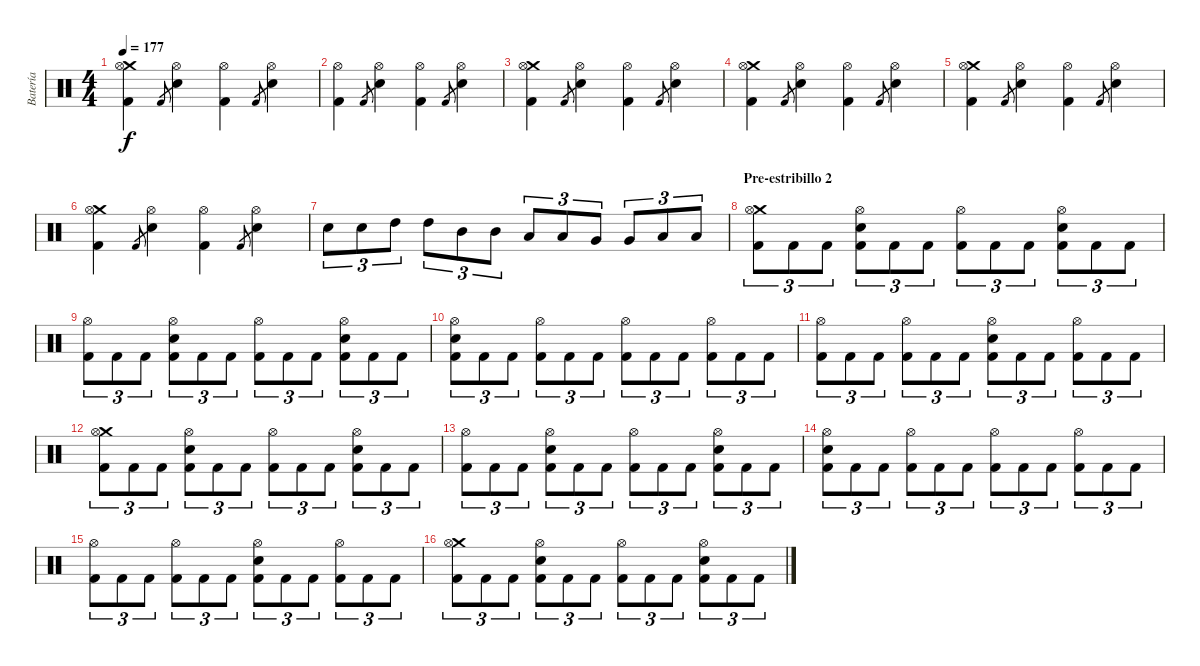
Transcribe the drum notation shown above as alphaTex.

\track ("Batería" "Batería") {instrument percussion}
\staff {score}
\articulation defaults
\ts (4 4)
\tempo 177
\clef neutral
\ks c
("Crash medium (hit)" "Hi-Hat (open)" "Kick (hit) 2").4{dy f} "Kick (hit) 2".8{gr} ("Hi-Hat (open)" "Snare (hit) 2").4 ("Hi-Hat (open)" "Kick (hit) 2").4 "Kick (hit) 2".8{gr} ("Hi-Hat (open)" "Snare (hit) 2").4 |
("Hi-Hat (open)" "Kick (hit) 2").4 "Kick (hit) 2".8{gr} ("Hi-Hat (open)" "Snare (hit) 2").4 ("Hi-Hat (open)" "Kick (hit) 2").4 "Kick (hit) 2".8{gr} ("Hi-Hat (open)" "Snare (hit) 2").4 |
("Crash medium (hit)" "Hi-Hat (open)" "Kick (hit) 2").4 "Kick (hit) 2".8{gr} ("Hi-Hat (open)" "Snare (hit) 2").4 ("Hi-Hat (open)" "Kick (hit) 2").4 "Kick (hit) 2".8{gr} ("Hi-Hat (open)" "Snare (hit) 2").4 |
("Crash medium (hit)" "Hi-Hat (open)" "Kick (hit) 2").4 "Kick (hit) 2".8{gr} ("Hi-Hat (open)" "Snare (hit) 2").4 ("Hi-Hat (open)" "Kick (hit) 2").4 "Kick (hit) 2".8{gr} ("Hi-Hat (open)" "Snare (hit) 2").4 |
("Crash medium (hit)" "Hi-Hat (open)" "Kick (hit) 2").4 "Kick (hit) 2".8{gr} ("Hi-Hat (open)" "Snare (hit) 2").4 ("Hi-Hat (open)" "Kick (hit) 2").4 "Kick (hit) 2".8{gr} ("Hi-Hat (open)" "Snare (hit) 2").4 |
("Crash medium (hit)" "Hi-Hat (open)" "Kick (hit) 2").4 "Kick (hit) 2".8{gr} ("Hi-Hat (open)" "Snare (hit) 2").4 ("Hi-Hat (open)" "Kick (hit) 2").4 "Kick (hit) 2".8{gr} ("Hi-Hat (open)" "Snare (hit) 2").4 |
"Snare (hit) 2".8{tu (3 2)} "Snare (hit) 2".8{tu (3 2)} "High Tom (hit)".8{tu (3 2)} "High Tom (hit)".8{tu (3 2)} "Mid Tom (hit)".8{tu (3 2)} "Mid Tom (hit)".8{tu (3 2)} "Low Tom (hit)".8{tu (3 2)} "Low Tom (hit)".8{tu (3 2)} "Very Low Tom (hit)".8{tu (3 2)} "Very Low Tom (hit)".8{tu (3 2)} "Low Floor Tom (hit)".8{tu (3 2)} "Low Floor Tom (hit)".8{tu (3 2)} |
\section ("" "Pre-estribillo 2")
("Crash medium (hit)" "Hi-Hat (open)" "Kick (hit) 2").8{tu (3 2)} "Kick (hit) 2".8{tu (3 2)} "Kick (hit) 2".8{tu (3 2)} ("Hi-Hat (open)" "Snare (hit) 2" "Kick (hit) 2").8{tu (3 2)} "Kick (hit) 2".8{tu (3 2)} "Kick (hit) 2".8{tu (3 2)} ("Hi-Hat (open)" "Kick (hit) 2").8{tu (3 2)} "Kick (hit) 2".8{tu (3 2)} "Kick (hit) 2".8{tu (3 2)} ("Hi-Hat (open)" "Snare (hit) 2" "Kick (hit) 2").8{tu (3 2)} "Kick (hit) 2".8{tu (3 2)} "Kick (hit) 2".8{tu (3 2)} |
("Hi-Hat (open)" "Kick (hit) 2").8{tu (3 2)} "Kick (hit) 2".8{tu (3 2)} "Kick (hit) 2".8{tu (3 2)} ("Hi-Hat (open)" "Snare (hit) 2" "Kick (hit) 2").8{tu (3 2)} "Kick (hit) 2".8{tu (3 2)} "Kick (hit) 2".8{tu (3 2)} ("Hi-Hat (open)" "Kick (hit) 2").8{tu (3 2)} "Kick (hit) 2".8{tu (3 2)} "Kick (hit) 2".8{tu (3 2)} ("Hi-Hat (open)" "Snare (hit) 2" "Kick (hit) 2").8{tu (3 2)} "Kick (hit) 2".8{tu (3 2)} "Kick (hit) 2".8{tu (3 2)} |
("Hi-Hat (open)" "Snare (hit) 2" "Kick (hit) 2").8{tu (3 2)} "Kick (hit) 2".8{tu (3 2)} "Kick (hit) 2".8{tu (3 2)} ("Hi-Hat (open)" "Kick (hit) 2").8{tu (3 2)} "Kick (hit) 2".8{tu (3 2)} "Kick (hit) 2".8{tu (3 2)} ("Hi-Hat (open)" "Kick (hit) 2").8{tu (3 2)} "Kick (hit) 2".8{tu (3 2)} "Kick (hit) 2".8{tu (3 2)} ("Hi-Hat (open)" "Kick (hit) 2").8{tu (3 2)} "Kick (hit) 2".8{tu (3 2)} "Kick (hit) 2".8{tu (3 2)} |
("Hi-Hat (open)" "Kick (hit) 2").8{tu (3 2)} "Kick (hit) 2".8{tu (3 2)} "Kick (hit) 2".8{tu (3 2)} ("Hi-Hat (open)" "Kick (hit) 2").8{tu (3 2)} "Kick (hit) 2".8{tu (3 2)} "Kick (hit) 2".8{tu (3 2)} ("Hi-Hat (open)" "Snare (hit) 2" "Kick (hit) 2").8{tu (3 2)} "Kick (hit) 2".8{tu (3 2)} "Kick (hit) 2".8{tu (3 2)} ("Hi-Hat (open)" "Kick (hit) 2").8{tu (3 2)} "Kick (hit) 2".8{tu (3 2)} "Kick (hit) 2".8{tu (3 2)} |
("Crash medium (hit)" "Hi-Hat (open)" "Kick (hit) 2").8{tu (3 2)} "Kick (hit) 2".8{tu (3 2)} "Kick (hit) 2".8{tu (3 2)} ("Hi-Hat (open)" "Snare (hit) 2" "Kick (hit) 2").8{tu (3 2)} "Kick (hit) 2".8{tu (3 2)} "Kick (hit) 2".8{tu (3 2)} ("Hi-Hat (open)" "Kick (hit) 2").8{tu (3 2)} "Kick (hit) 2".8{tu (3 2)} "Kick (hit) 2".8{tu (3 2)} ("Hi-Hat (open)" "Snare (hit) 2" "Kick (hit) 2").8{tu (3 2)} "Kick (hit) 2".8{tu (3 2)} "Kick (hit) 2".8{tu (3 2)} |
("Hi-Hat (open)" "Kick (hit) 2").8{tu (3 2)} "Kick (hit) 2".8{tu (3 2)} "Kick (hit) 2".8{tu (3 2)} ("Hi-Hat (open)" "Snare (hit) 2" "Kick (hit) 2").8{tu (3 2)} "Kick (hit) 2".8{tu (3 2)} "Kick (hit) 2".8{tu (3 2)} ("Hi-Hat (open)" "Kick (hit) 2").8{tu (3 2)} "Kick (hit) 2".8{tu (3 2)} "Kick (hit) 2".8{tu (3 2)} ("Hi-Hat (open)" "Snare (hit) 2" "Kick (hit) 2").8{tu (3 2)} "Kick (hit) 2".8{tu (3 2)} "Kick (hit) 2".8{tu (3 2)} |
("Hi-Hat (open)" "Snare (hit) 2" "Kick (hit) 2").8{tu (3 2)} "Kick (hit) 2".8{tu (3 2)} "Kick (hit) 2".8{tu (3 2)} ("Hi-Hat (open)" "Kick (hit) 2").8{tu (3 2)} "Kick (hit) 2".8{tu (3 2)} "Kick (hit) 2".8{tu (3 2)} ("Hi-Hat (open)" "Kick (hit) 2").8{tu (3 2)} "Kick (hit) 2".8{tu (3 2)} "Kick (hit) 2".8{tu (3 2)} ("Hi-Hat (open)" "Kick (hit) 2").8{tu (3 2)} "Kick (hit) 2".8{tu (3 2)} "Kick (hit) 2".8{tu (3 2)} |
("Hi-Hat (open)" "Kick (hit) 2").8{tu (3 2)} "Kick (hit) 2".8{tu (3 2)} "Kick (hit) 2".8{tu (3 2)} ("Hi-Hat (open)" "Kick (hit) 2").8{tu (3 2)} "Kick (hit) 2".8{tu (3 2)} "Kick (hit) 2".8{tu (3 2)} ("Hi-Hat (open)" "Snare (hit) 2" "Kick (hit) 2").8{tu (3 2)} "Kick (hit) 2".8{tu (3 2)} "Kick (hit) 2".8{tu (3 2)} ("Hi-Hat (open)" "Kick (hit) 2").8{tu (3 2)} "Kick (hit) 2".8{tu (3 2)} "Kick (hit) 2".8{tu (3 2)} |
("Crash medium (hit)" "Hi-Hat (open)" "Kick (hit) 2").8{tu (3 2)} "Kick (hit) 2".8{tu (3 2)} "Kick (hit) 2".8{tu (3 2)} ("Hi-Hat (open)" "Snare (hit) 2" "Kick (hit) 2").8{tu (3 2)} "Kick (hit) 2".8{tu (3 2)} "Kick (hit) 2".8{tu (3 2)} ("Hi-Hat (open)" "Kick (hit) 2").8{tu (3 2)} "Kick (hit) 2".8{tu (3 2)} "Kick (hit) 2".8{tu (3 2)} ("Hi-Hat (open)" "Snare (hit) 2" "Kick (hit) 2").8{tu (3 2)} "Kick (hit) 2".8{tu (3 2)} "Kick (hit) 2".8{tu (3 2)}
